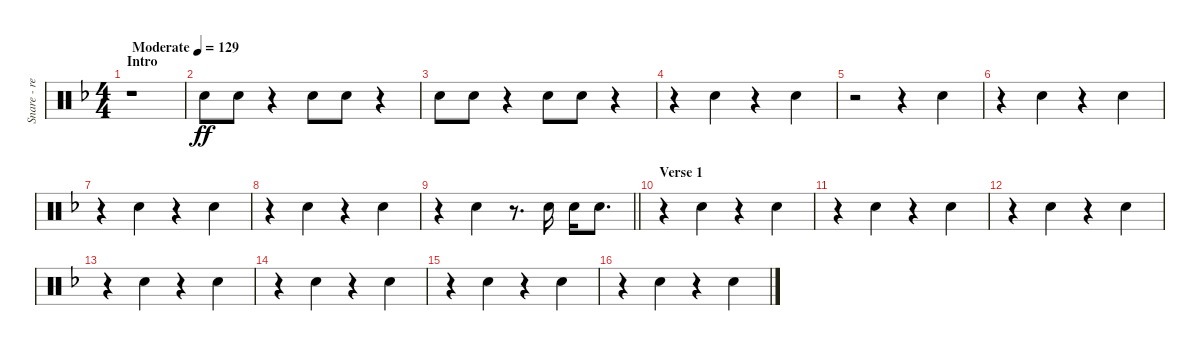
\track ("Snare - reverb" "Snare - re") {instrument percussion}
\staff {score}
\articulation defaults
\ts (4 4)
\section ("" "Intro")
\tempo (129 "Moderate")
\clef neutral
\ks dminor
r.1{dy ff volume 13} |
"Snare (hit) 2".8{beam Down} "Snare (hit) 2".8{beam Down} r.4 "Snare (hit) 2".8{beam Down} "Snare (hit) 2".8{beam Down} r.4 |
"Snare (hit) 2".8{beam Down} "Snare (hit) 2".8{beam Down} r.4 "Snare (hit) 2".8{beam Down} "Snare (hit) 2".8{beam Down} r.4 |
r.4 "Snare (hit) 2".4 r.4 "Snare (hit) 2".4 |
r.2 r.4 "Snare (hit) 2".4 |
r.4 "Snare (hit) 2".4 r.4 "Snare (hit) 2".4 |
r.4 "Snare (hit) 2".4 r.4 "Snare (hit) 2".4 |
r.4 "Snare (hit) 2".4 r.4 "Snare (hit) 2".4 |
\barLineRight lightlight
r.4 "Snare (hit) 2".4 r.8{d} "Snare (hit) 2".16 "Snare (hit) 2".16 "Snare (hit) 2".8{d} |
\section ("" "Verse 1")
r.4 "Snare (hit) 2".4 r.4 "Snare (hit) 2".4 |
r.4 "Snare (hit) 2".4 r.4 "Snare (hit) 2".4 |
r.4 "Snare (hit) 2".4 r.4 "Snare (hit) 2".4 |
r.4 "Snare (hit) 2".4 r.4 "Snare (hit) 2".4 |
r.4 "Snare (hit) 2".4 r.4 "Snare (hit) 2".4 |
r.4 "Snare (hit) 2".4 r.4 "Snare (hit) 2".4 |
r.4 "Snare (hit) 2".4 r.4 "Snare (hit) 2".4
